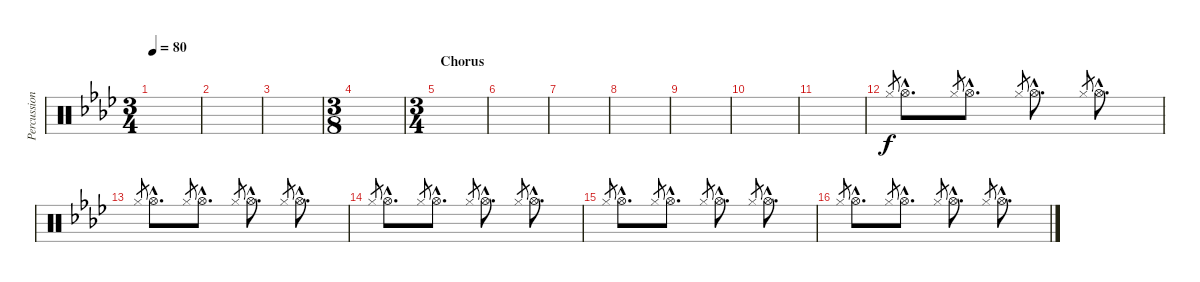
\track ("Percussion" "Percussion") {instrument percussion}
\staff {score}
\articulation defaults
\ts (3 4)
\tempo 80
\clef neutral
\ks ab
|
|
|
\ts (3 8)
|
\ts (3 4)
\section ("" "Chorus")
|
|
|
|
|
|
|
"Hi-Hat (closed)".8{gr} "Hi-Hat (open)"{hac}.8{d} "Hi-Hat (closed)".8{gr} "Hi-Hat (open)"{hac}.8{d} "Hi-Hat (closed)".8{gr} "Hi-Hat (open)"{hac}.8{d} "Hi-Hat (closed)".8{gr} "Hi-Hat (open)"{hac}.8{d} |
"Hi-Hat (closed)".8{gr} "Hi-Hat (open)"{hac}.8{d} "Hi-Hat (closed)".8{gr} "Hi-Hat (open)"{hac}.8{d} "Hi-Hat (closed)".8{gr} "Hi-Hat (open)"{hac}.8{d} "Hi-Hat (closed)".8{gr} "Hi-Hat (open)"{hac}.8{d} |
"Hi-Hat (closed)".8{gr} "Hi-Hat (open)"{hac}.8{d} "Hi-Hat (closed)".8{gr} "Hi-Hat (open)"{hac}.8{d} "Hi-Hat (closed)".8{gr} "Hi-Hat (open)"{hac}.8{d} "Hi-Hat (closed)".8{gr} "Hi-Hat (open)"{hac}.8{d} |
"Hi-Hat (closed)".8{gr} "Hi-Hat (open)"{hac}.8{d} "Hi-Hat (closed)".8{gr} "Hi-Hat (open)"{hac}.8{d} "Hi-Hat (closed)".8{gr} "Hi-Hat (open)"{hac}.8{d} "Hi-Hat (closed)".8{gr} "Hi-Hat (open)"{hac}.8{d} |
"Hi-Hat (closed)".8{gr} "Hi-Hat (open)"{hac}.8{d} "Hi-Hat (closed)".8{gr} "Hi-Hat (open)"{hac}.8{d} "Hi-Hat (closed)".8{gr} "Hi-Hat (open)"{hac}.8{d} "Hi-Hat (closed)".8{gr} "Hi-Hat (open)"{hac}.8{d}
